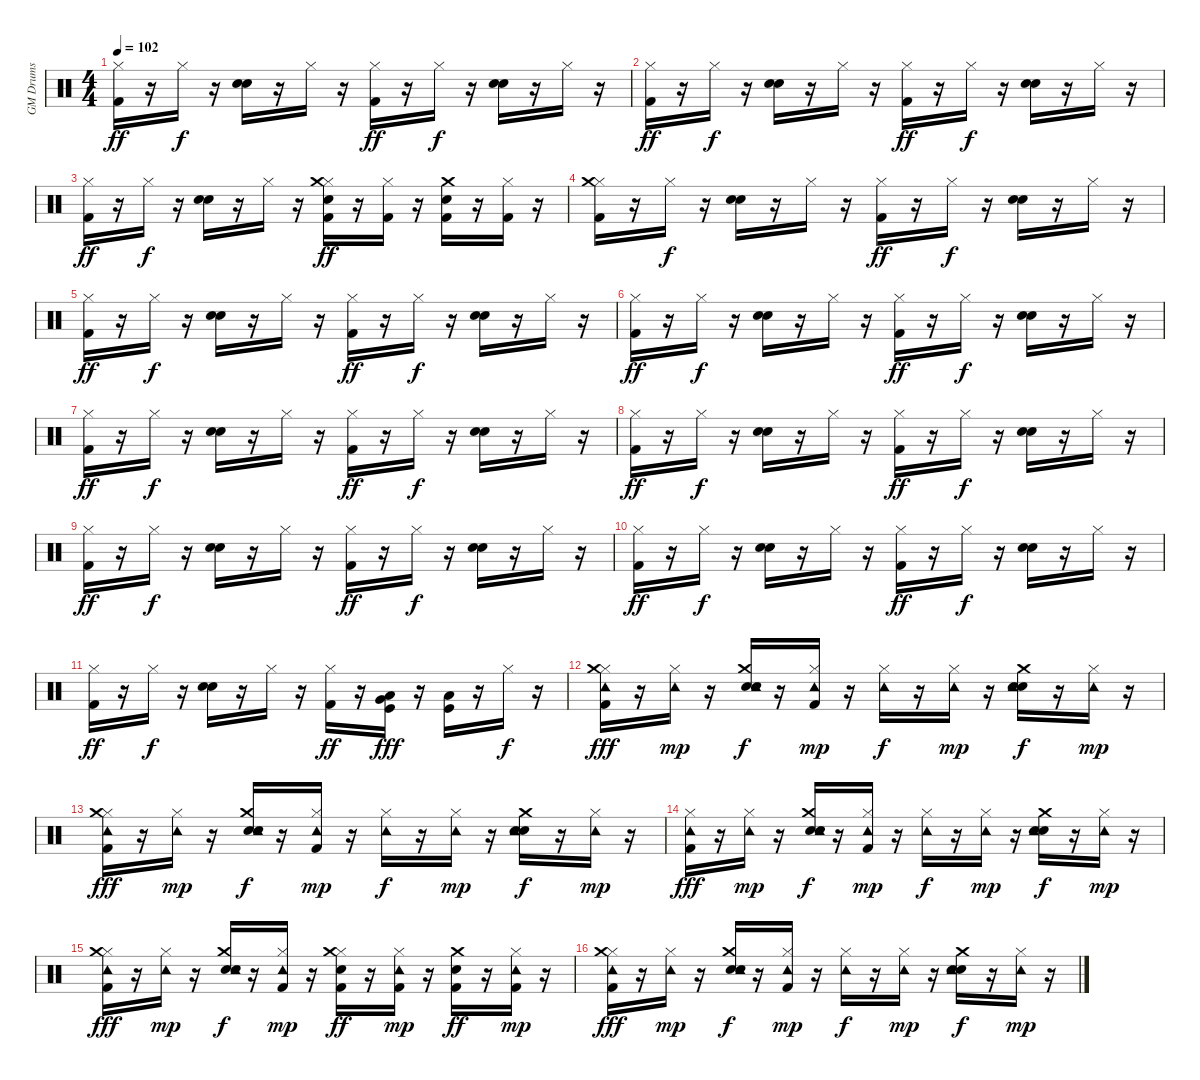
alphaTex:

\track ("GM Drums" "GM Drums") {instrument percussion}
\staff {score}
\articulation defaults
\ts (4 4)
\tempo 102
\clef neutral
\ks c
("Kick (hit) 2" "Hi-Hat (closed)").16{dy ff} r.16 "Hi-Hat (closed)".16{dy f} r.16 ("Metronome (bell)" "Hand Clap (hit)").16 r.16 "Hi-Hat (closed)".16 r.16 ("Kick (hit) 2" "Hi-Hat (closed)").16{dy ff} r.16 "Hi-Hat (closed)".16{dy f} r.16 ("Metronome (bell)" "Hand Clap (hit)").16 r.16 "Hi-Hat (closed)".16 r.16 |
("Kick (hit) 2" "Hi-Hat (closed)").16{dy ff} r.16 "Hi-Hat (closed)".16{dy f} r.16 ("Metronome (bell)" "Hand Clap (hit)").16 r.16 "Hi-Hat (closed)".16 r.16 ("Kick (hit) 2" "Hi-Hat (closed)").16{dy ff} r.16 "Hi-Hat (closed)".16{dy f} r.16 ("Metronome (bell)" "Hand Clap (hit)").16 r.16 "Hi-Hat (closed)".16 r.16 |
("Kick (hit) 2" "Hi-Hat (closed)").16{dy ff} r.16 "Hi-Hat (closed)".16{dy f} r.16 ("Metronome (bell)" "Hand Clap (hit)").16 r.16 "Hi-Hat (closed)".16 r.16 ("Metronome (bell)" "Kick (hit) 2" "Hi-Hat (closed)" "Crash medium (hit)").16{dy ff} r.16 ("Kick (hit) 2" "Hi-Hat (closed)").16 r.16 ("Metronome (bell)" "Kick (hit) 2" "Crash medium (hit)").16 r.16 ("Kick (hit) 2" "Hi-Hat (closed)").16 r.16 |
("Kick (hit) 2" "Hi-Hat (closed)" "Crash medium (hit)").16 r.16 "Hi-Hat (closed)".16{dy f} r.16 ("Metronome (bell)" "Hand Clap (hit)").16 r.16 "Hi-Hat (closed)".16 r.16 ("Kick (hit) 2" "Hi-Hat (closed)").16{dy ff} r.16 "Hi-Hat (closed)".16{dy f} r.16 ("Metronome (bell)" "Hand Clap (hit)").16 r.16 "Hi-Hat (closed)".16 r.16 |
("Kick (hit) 2" "Hi-Hat (closed)").16{dy ff} r.16 "Hi-Hat (closed)".16{dy f} r.16 ("Metronome (bell)" "Hand Clap (hit)").16 r.16 "Hi-Hat (closed)".16 r.16 ("Kick (hit) 2" "Hi-Hat (closed)").16{dy ff} r.16 "Hi-Hat (closed)".16{dy f} r.16 ("Metronome (bell)" "Hand Clap (hit)").16 r.16 "Hi-Hat (closed)".16 r.16 |
("Kick (hit) 2" "Hi-Hat (closed)").16{dy ff} r.16 "Hi-Hat (closed)".16{dy f} r.16 ("Metronome (bell)" "Hand Clap (hit)").16 r.16 "Hi-Hat (closed)".16 r.16 ("Kick (hit) 2" "Hi-Hat (closed)").16{dy ff} r.16 "Hi-Hat (closed)".16{dy f} r.16 ("Metronome (bell)" "Hand Clap (hit)").16 r.16 "Hi-Hat (closed)".16 r.16 |
("Kick (hit) 2" "Hi-Hat (closed)").16{dy ff} r.16 "Hi-Hat (closed)".16{dy f} r.16 ("Metronome (bell)" "Hand Clap (hit)").16 r.16 "Hi-Hat (closed)".16 r.16 ("Kick (hit) 2" "Hi-Hat (closed)").16{dy ff} r.16 "Hi-Hat (closed)".16{dy f} r.16 ("Metronome (bell)" "Hand Clap (hit)").16 r.16 "Hi-Hat (closed)".16 r.16 |
("Kick (hit) 2" "Hi-Hat (closed)").16{dy ff} r.16 "Hi-Hat (closed)".16{dy f} r.16 ("Metronome (bell)" "Hand Clap (hit)").16 r.16 "Hi-Hat (closed)".16 r.16 ("Kick (hit) 2" "Hi-Hat (closed)").16{dy ff} r.16 "Hi-Hat (closed)".16{dy f} r.16 ("Metronome (bell)" "Hand Clap (hit)").16 r.16 "Hi-Hat (closed)".16 r.16 |
("Kick (hit) 2" "Hi-Hat (closed)").16{dy ff} r.16 "Hi-Hat (closed)".16{dy f} r.16 ("Metronome (bell)" "Hand Clap (hit)").16 r.16 "Hi-Hat (closed)".16 r.16 ("Kick (hit) 2" "Hi-Hat (closed)").16{dy ff} r.16 "Hi-Hat (closed)".16{dy f} r.16 ("Metronome (bell)" "Hand Clap (hit)").16 r.16 "Hi-Hat (closed)".16 r.16 |
("Kick (hit) 2" "Hi-Hat (closed)").16{dy ff} r.16 "Hi-Hat (closed)".16{dy f} r.16 ("Metronome (bell)" "Hand Clap (hit)").16 r.16 "Hi-Hat (closed)".16 r.16 ("Kick (hit) 2" "Hi-Hat (closed)").16{dy ff} r.16 "Hi-Hat (closed)".16{dy f} r.16 ("Metronome (bell)" "Hand Clap (hit)").16 r.16 "Hi-Hat (closed)".16 r.16 |
("Kick (hit) 2" "Hi-Hat (closed)").16{dy ff} r.16 "Hi-Hat (closed)".16{dy f} r.16 ("Metronome (bell)" "Hand Clap (hit)").16 r.16 "Hi-Hat (closed)".16 r.16 ("Kick (hit) 2" "Hi-Hat (closed)").16{dy ff} r.16 ("Low Floor Tom (hit)" "Kick (hit)" "Very Low Tom (hit)").16{dy fff} r.16 ("Kick (hit)" "Low Floor Tom (hit)").16 r.16 "Hi-Hat (closed)".16{dy f} r.16 |
("Kick (hit) 2" "Hi-Hat (closed)" "Tambourine (hit)" "Crash medium (hit)").16{dy fff} r.16 ("Hi-Hat (closed)" "Tambourine (hit)").16{dy mp} r.16 ("Metronome (bell)" "Hand Clap (hit)" "Tambourine (hit)" "Crash medium (hit)").16{dy f} r.16 ("Kick (hit) 2" "Hi-Hat (closed)" "Tambourine (hit)").16{dy mp} r.16 ("Hi-Hat (closed)" "Tambourine (hit)").16{dy f} r.16 ("Hi-Hat (closed)" "Tambourine (hit)").16{dy mp} r.16 ("Metronome (bell)" "Hand Clap (hit)" "Tambourine (hit)" "Crash medium (hit)").16{dy f} r.16 ("Hi-Hat (closed)" "Tambourine (hit)").16{dy mp} r.16 |
("Kick (hit) 2" "Hi-Hat (closed)" "Tambourine (hit)" "Crash medium (hit)").16{dy fff} r.16 ("Hi-Hat (closed)" "Tambourine (hit)").16{dy mp} r.16 ("Metronome (bell)" "Hand Clap (hit)" "Tambourine (hit)" "Crash medium (hit)").16{dy f} r.16 ("Kick (hit) 2" "Hi-Hat (closed)" "Tambourine (hit)").16{dy mp} r.16 ("Hi-Hat (closed)" "Tambourine (hit)").16{dy f} r.16 ("Hi-Hat (closed)" "Tambourine (hit)").16{dy mp} r.16 ("Metronome (bell)" "Hand Clap (hit)" "Tambourine (hit)" "Crash medium (hit)").16{dy f} r.16 ("Hi-Hat (closed)" "Tambourine (hit)").16{dy mp} r.16 |
("Kick (hit) 2" "Hi-Hat (closed)" "Tambourine (hit)").16{dy fff} r.16 ("Hi-Hat (closed)" "Tambourine (hit)").16{dy mp} r.16 ("Metronome (bell)" "Hand Clap (hit)" "Tambourine (hit)" "Crash medium (hit)").16{dy f} r.16 ("Kick (hit) 2" "Hi-Hat (closed)" "Tambourine (hit)").16{dy mp} r.16 ("Hi-Hat (closed)" "Tambourine (hit)").16{dy f} r.16 ("Hi-Hat (closed)" "Tambourine (hit)").16{dy mp} r.16 ("Metronome (bell)" "Hand Clap (hit)" "Tambourine (hit)" "Crash medium (hit)").16{dy f} r.16 ("Hi-Hat (closed)" "Tambourine (hit)").16{dy mp} r.16 |
("Kick (hit) 2" "Hi-Hat (closed)" "Tambourine (hit)" "Crash medium (hit)").16{dy fff} r.16 ("Hi-Hat (closed)" "Tambourine (hit)").16{dy mp} r.16 ("Metronome (bell)" "Hand Clap (hit)" "Tambourine (hit)" "Crash medium (hit)").16{dy f} r.16 ("Kick (hit) 2" "Hi-Hat (closed)" "Tambourine (hit)").16{dy mp} r.16 ("Metronome (bell)" "Kick (hit) 2" "Hi-Hat (closed)" "Crash medium (hit)").16{dy ff} r.16 ("Kick (hit) 2" "Hi-Hat (closed)" "Tambourine (hit)").16{dy mp} r.16 ("Metronome (bell)" "Kick (hit) 2" "Crash medium (hit)").16{dy ff} r.16 ("Kick (hit) 2" "Hi-Hat (closed)" "Tambourine (hit)").16{dy mp} r.16 |
("Kick (hit) 2" "Hi-Hat (closed)" "Tambourine (hit)" "Crash medium (hit)").16{dy fff} r.16 ("Hi-Hat (closed)" "Tambourine (hit)").16{dy mp} r.16 ("Metronome (bell)" "Hand Clap (hit)" "Tambourine (hit)" "Crash medium (hit)").16{dy f} r.16 ("Kick (hit) 2" "Hi-Hat (closed)" "Tambourine (hit)").16{dy mp} r.16 ("Hi-Hat (closed)" "Tambourine (hit)").16{dy f} r.16 ("Hi-Hat (closed)" "Tambourine (hit)").16{dy mp} r.16 ("Metronome (bell)" "Hand Clap (hit)" "Tambourine (hit)" "Crash medium (hit)").16{dy f} r.16 ("Hi-Hat (closed)" "Tambourine (hit)").16{dy mp} r.16
